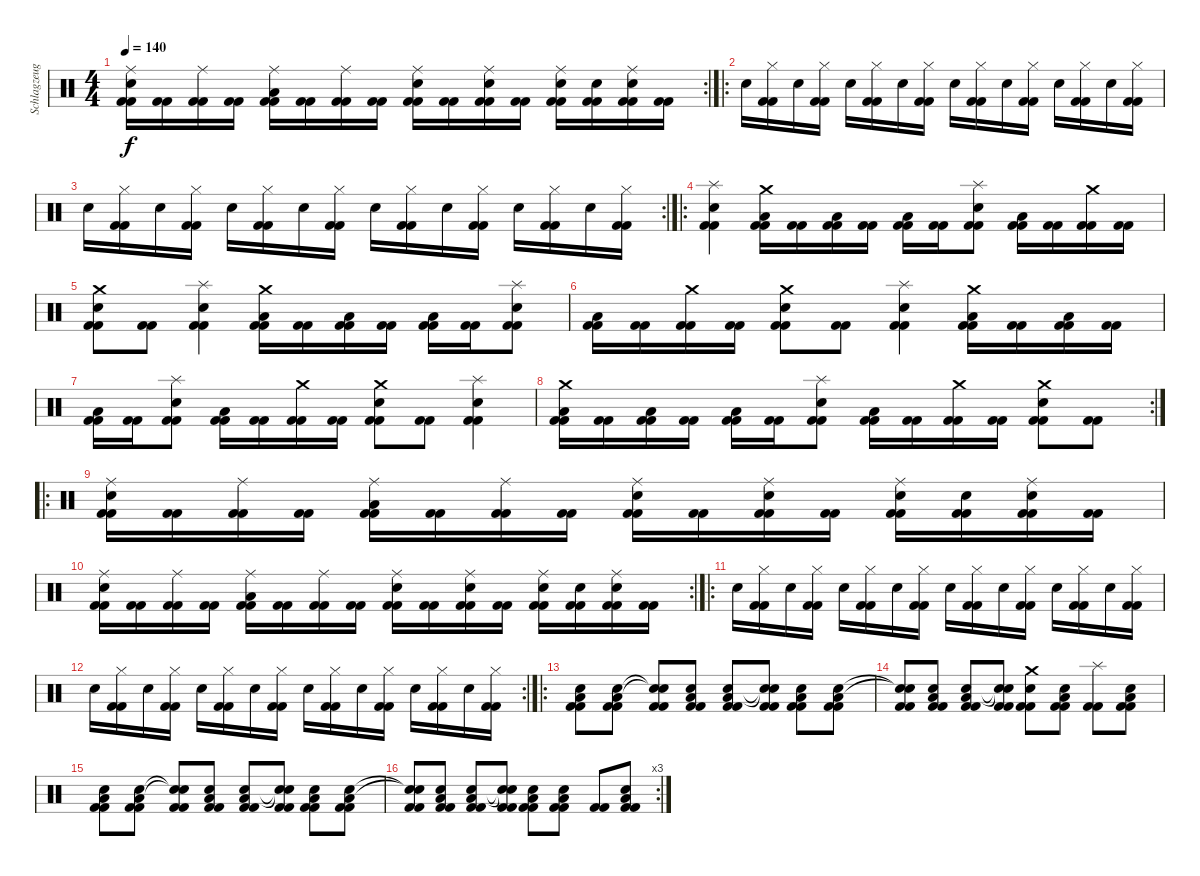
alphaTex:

\track ("Schlagzeug" "Schlagzeug") {instrument percussion}
\staff {score}
\articulation defaults
\rc 2
\ts (4 4)
\tempo 140
\clef neutral
\ks c
("Ride (middle)" "Snare (hit) 2" "Kick (hit) 2" "Kick (hit) 2").16{dy f} ("Kick (hit) 2" "Kick (hit) 2").16 ("Ride (middle)" "Kick (hit) 2" "Kick (hit) 2").16 ("Kick (hit) 2" "Kick (hit) 2").16 ("Ride (middle)" "Low Tom (hit)" "Kick (hit) 2" "Kick (hit) 2").16 ("Kick (hit) 2" "Kick (hit) 2").16 ("Ride (middle)" "Kick (hit) 2" "Kick (hit) 2").16 ("Kick (hit) 2" "Kick (hit) 2").16 ("Ride (middle)" "Snare (hit) 2" "Kick (hit) 2" "Kick (hit) 2").16 ("Kick (hit) 2" "Kick (hit) 2").16 ("Ride (middle)" "Snare (hit) 2" "Kick (hit) 2" "Kick (hit) 2").16 ("Kick (hit) 2" "Kick (hit) 2").16 ("Ride (middle)" "Snare (hit) 2" "Kick (hit) 2" "Kick (hit) 2").16 ("Snare (hit) 2" "Kick (hit) 2" "Kick (hit) 2").16 ("Ride (middle)" "Snare (hit) 2" "Kick (hit) 2" "Kick (hit) 2").16 ("Kick (hit) 2" "Kick (hit) 2").16 |
\ro "Snare (hit) 2".16
("Hi-Hat (closed)" "Kick (hit) 2" "Kick (hit) 2").16 "Snare (hit) 2".16 ("Hi-Hat (closed)" "Kick (hit) 2" "Kick (hit) 2").16 "Snare (hit) 2".16 ("Hi-Hat (closed)" "Kick (hit) 2" "Kick (hit) 2").16 "Snare (hit) 2".16 ("Hi-Hat (closed)" "Kick (hit) 2" "Kick (hit) 2").16 "Snare (hit) 2".16 ("Hi-Hat (closed)" "Kick (hit) 2" "Kick (hit) 2").16 "Snare (hit) 2".16 ("Hi-Hat (closed)" "Kick (hit) 2" "Kick (hit) 2").16 "Snare (hit) 2".16 ("Hi-Hat (closed)" "Kick (hit) 2" "Kick (hit) 2").16 "Snare (hit) 2".16 ("Hi-Hat (closed)" "Kick (hit) 2" "Kick (hit) 2").16 |
\rc 2 "Snare (hit) 2".16
("Hi-Hat (closed)" "Kick (hit) 2" "Kick (hit) 2").16 "Snare (hit) 2".16 ("Hi-Hat (closed)" "Kick (hit) 2" "Kick (hit) 2").16 "Snare (hit) 2".16 ("Hi-Hat (closed)" "Kick (hit) 2" "Kick (hit) 2").16 "Snare (hit) 2".16 ("Hi-Hat (closed)" "Kick (hit) 2" "Kick (hit) 2").16 "Snare (hit) 2".16 ("Hi-Hat (closed)" "Kick (hit) 2" "Kick (hit) 2").16 "Snare (hit) 2".16 ("Hi-Hat (closed)" "Kick (hit) 2" "Kick (hit) 2").16 "Snare (hit) 2".16 ("Hi-Hat (closed)" "Kick (hit) 2" "Kick (hit) 2").16 "Snare (hit) 2".16 ("Hi-Hat (closed)" "Kick (hit) 2" "Kick (hit) 2").16 |
\ro
("Splash (hit)" "Snare (hit) 2" "Kick (hit) 2" "Kick (hit) 2").4 ("Crash medium (hit)" "Low Tom (hit)" "Kick (hit) 2" "Kick (hit) 2").16 ("Kick (hit) 2" "Kick (hit) 2").16 ("Low Tom (hit)" "Kick (hit) 2" "Kick (hit) 2").16 ("Kick (hit) 2" "Kick (hit) 2").16 ("Low Tom (hit)" "Kick (hit) 2" "Kick (hit) 2").16 ("Kick (hit) 2" "Kick (hit) 2").16 ("Splash (hit)" "Snare (hit) 2" "Kick (hit) 2" "Kick (hit) 2").8 ("Low Tom (hit)" "Kick (hit) 2" "Kick (hit) 2").16 ("Kick (hit) 2" "Kick (hit) 2").16 ("Crash medium (hit)" "Kick (hit) 2" "Kick (hit) 2").16 ("Kick (hit) 2" "Kick (hit) 2").16 |
("Crash medium (hit)" "Snare (hit) 2" "Kick (hit) 2" "Kick (hit) 2").8 ("Kick (hit) 2" "Kick (hit) 2").8 ("Splash (hit)" "Snare (hit) 2" "Kick (hit) 2" "Kick (hit) 2").4 ("Crash medium (hit)" "Low Tom (hit)" "Kick (hit) 2" "Kick (hit) 2").16 ("Kick (hit) 2" "Kick (hit) 2").16 ("Low Tom (hit)" "Kick (hit) 2" "Kick (hit) 2").16 ("Kick (hit) 2" "Kick (hit) 2").16 ("Low Tom (hit)" "Kick (hit) 2" "Kick (hit) 2").16 ("Kick (hit) 2" "Kick (hit) 2").16 ("Splash (hit)" "Snare (hit) 2" "Kick (hit) 2" "Kick (hit) 2").8 |
("Low Tom (hit)" "Kick (hit) 2" "Kick (hit) 2").16 ("Kick (hit) 2" "Kick (hit) 2").16 ("Crash medium (hit)" "Kick (hit) 2" "Kick (hit) 2").16 ("Kick (hit) 2" "Kick (hit) 2").16 ("Crash medium (hit)" "Snare (hit) 2" "Kick (hit) 2" "Kick (hit) 2").8 ("Kick (hit) 2" "Kick (hit) 2").8 ("Splash (hit)" "Snare (hit) 2" "Kick (hit) 2" "Kick (hit) 2").4 ("Crash medium (hit)" "Low Tom (hit)" "Kick (hit) 2" "Kick (hit) 2").16 ("Kick (hit) 2" "Kick (hit) 2").16 ("Low Tom (hit)" "Kick (hit) 2" "Kick (hit) 2").16 ("Kick (hit) 2" "Kick (hit) 2").16 |
("Low Tom (hit)" "Kick (hit) 2" "Kick (hit) 2").16 ("Kick (hit) 2" "Kick (hit) 2").16 ("Splash (hit)" "Snare (hit) 2" "Kick (hit) 2" "Kick (hit) 2").8 ("Low Tom (hit)" "Kick (hit) 2" "Kick (hit) 2").16 ("Kick (hit) 2" "Kick (hit) 2").16 ("Crash medium (hit)" "Kick (hit) 2" "Kick (hit) 2").16 ("Kick (hit) 2" "Kick (hit) 2").16 ("Crash medium (hit)" "Snare (hit) 2" "Kick (hit) 2" "Kick (hit) 2").8 ("Kick (hit) 2" "Kick (hit) 2").8 ("Splash (hit)" "Snare (hit) 2" "Kick (hit) 2" "Kick (hit) 2").4 |
\rc 2
("Crash medium (hit)" "Low Tom (hit)" "Kick (hit) 2" "Kick (hit) 2").16 ("Kick (hit) 2" "Kick (hit) 2").16 ("Low Tom (hit)" "Kick (hit) 2" "Kick (hit) 2").16 ("Kick (hit) 2" "Kick (hit) 2").16 ("Low Tom (hit)" "Kick (hit) 2" "Kick (hit) 2").16 ("Kick (hit) 2" "Kick (hit) 2").16 ("Splash (hit)" "Snare (hit) 2" "Kick (hit) 2" "Kick (hit) 2").8 ("Low Tom (hit)" "Kick (hit) 2" "Kick (hit) 2").16 ("Kick (hit) 2" "Kick (hit) 2").16 ("Crash medium (hit)" "Kick (hit) 2" "Kick (hit) 2").16 ("Kick (hit) 2" "Kick (hit) 2").16 ("Crash medium (hit)" "Snare (hit) 2" "Kick (hit) 2" "Kick (hit) 2").8 ("Kick (hit) 2" "Kick (hit) 2").8 |
\ro
("Ride (middle)" "Snare (hit) 2" "Kick (hit) 2" "Kick (hit) 2").16 ("Kick (hit) 2" "Kick (hit) 2").16 ("Ride (middle)" "Kick (hit) 2" "Kick (hit) 2").16 ("Kick (hit) 2" "Kick (hit) 2").16 ("Ride (middle)" "Low Tom (hit)" "Kick (hit) 2" "Kick (hit) 2").16 ("Kick (hit) 2" "Kick (hit) 2").16 ("Ride (middle)" "Kick (hit) 2" "Kick (hit) 2").16 ("Kick (hit) 2" "Kick (hit) 2").16 ("Ride (middle)" "Snare (hit) 2" "Kick (hit) 2" "Kick (hit) 2").16 ("Kick (hit) 2" "Kick (hit) 2").16 ("Ride (middle)" "Snare (hit) 2" "Kick (hit) 2" "Kick (hit) 2").16 ("Kick (hit) 2" "Kick (hit) 2").16 ("Ride (middle)" "Snare (hit) 2" "Kick (hit) 2" "Kick (hit) 2").16 ("Snare (hit) 2" "Kick (hit) 2" "Kick (hit) 2").16 ("Ride (middle)" "Snare (hit) 2" "Kick (hit) 2" "Kick (hit) 2").16 ("Kick (hit) 2" "Kick (hit) 2").16 |
\rc 2
("Ride (middle)" "Snare (hit) 2" "Kick (hit) 2" "Kick (hit) 2").16 ("Kick (hit) 2" "Kick (hit) 2").16 ("Ride (middle)" "Kick (hit) 2" "Kick (hit) 2").16 ("Kick (hit) 2" "Kick (hit) 2").16 ("Ride (middle)" "Low Tom (hit)" "Kick (hit) 2" "Kick (hit) 2").16 ("Kick (hit) 2" "Kick (hit) 2").16 ("Ride (middle)" "Kick (hit) 2" "Kick (hit) 2").16 ("Kick (hit) 2" "Kick (hit) 2").16 ("Ride (middle)" "Snare (hit) 2" "Kick (hit) 2" "Kick (hit) 2").16 ("Kick (hit) 2" "Kick (hit) 2").16 ("Ride (middle)" "Snare (hit) 2" "Kick (hit) 2" "Kick (hit) 2").16 ("Kick (hit) 2" "Kick (hit) 2").16 ("Ride (middle)" "Snare (hit) 2" "Kick (hit) 2" "Kick (hit) 2").16 ("Snare (hit) 2" "Kick (hit) 2" "Kick (hit) 2").16 ("Ride (middle)" "Snare (hit) 2" "Kick (hit) 2" "Kick (hit) 2").16 ("Kick (hit) 2" "Kick (hit) 2").16 |
\ro "Snare (hit) 2".16
("Hi-Hat (closed)" "Kick (hit) 2" "Kick (hit) 2").16 "Snare (hit) 2".16 ("Hi-Hat (closed)" "Kick (hit) 2" "Kick (hit) 2").16 "Snare (hit) 2".16 ("Hi-Hat (closed)" "Kick (hit) 2" "Kick (hit) 2").16 "Snare (hit) 2".16 ("Hi-Hat (closed)" "Kick (hit) 2" "Kick (hit) 2").16 "Snare (hit) 2".16 ("Hi-Hat (closed)" "Kick (hit) 2" "Kick (hit) 2").16 "Snare (hit) 2".16 ("Hi-Hat (closed)" "Kick (hit) 2" "Kick (hit) 2").16 "Snare (hit) 2".16 ("Hi-Hat (closed)" "Kick (hit) 2" "Kick (hit) 2").16 "Snare (hit) 2".16 ("Hi-Hat (closed)" "Kick (hit) 2" "Kick (hit) 2").16 |
\rc 2 "Snare (hit) 2".16
("Hi-Hat (closed)" "Kick (hit) 2" "Kick (hit) 2").16 "Snare (hit) 2".16 ("Hi-Hat (closed)" "Kick (hit) 2" "Kick (hit) 2").16 "Snare (hit) 2".16 ("Hi-Hat (closed)" "Kick (hit) 2" "Kick (hit) 2").16 "Snare (hit) 2".16 ("Hi-Hat (closed)" "Kick (hit) 2" "Kick (hit) 2").16 "Snare (hit) 2".16 ("Hi-Hat (closed)" "Kick (hit) 2" "Kick (hit) 2").16 "Snare (hit) 2".16 ("Hi-Hat (closed)" "Kick (hit) 2" "Kick (hit) 2").16 "Snare (hit) 2".16 ("Hi-Hat (closed)" "Kick (hit) 2" "Kick (hit) 2").16 "Snare (hit) 2".16 ("Hi-Hat (closed)" "Kick (hit) 2" "Kick (hit) 2").16 |
\ro
("Low Tom (hit)" "Snare (hit) 2" "Kick (hit) 2" "Kick (hit) 2").8 ("Low Tom (hit)" "Snare (hit) 2" "Kick (hit) 2" "Kick (hit) 2").8 ("Snare (hit)"{t} "Snare (hit)"{t} "Kick (hit) 2" "Kick (hit) 2").8 ("Low Tom (hit)" "Snare (hit) 2" "Kick (hit) 2" "Kick (hit) 2").8 ("Low Tom (hit)" "Snare (hit) 2" "Kick (hit) 2" "Kick (hit) 2").8 ("Snare (hit)"{t} "Snare (hit)"{t} "Kick (hit) 2" "Kick (hit) 2").8 ("Low Tom (hit)" "Snare (hit) 2" "Kick (hit) 2" "Kick (hit) 2").8 ("Low Tom (hit)" "Snare (hit) 2" "Kick (hit) 2" "Kick (hit) 2").8 |
("Snare (hit)"{t} "Snare (hit)"{t} "Kick (hit) 2" "Kick (hit) 2").8 ("Low Tom (hit)" "Snare (hit) 2" "Kick (hit) 2" "Kick (hit) 2").8 ("Low Tom (hit)" "Snare (hit) 2" "Kick (hit) 2" "Kick (hit) 2").8 ("Snare (hit)"{t} "Snare (hit)"{t} "Kick (hit) 2" "Kick (hit) 2").8 ("Crash medium (hit)" "Snare (hit) 2" "Kick (hit) 2" "Kick (hit) 2").8 ("Low Tom (hit)" "Snare (hit) 2" "Kick (hit) 2" "Kick (hit) 2").8 ("Splash (hit)" "Kick (hit) 2" "Kick (hit) 2").8 ("Low Tom (hit)" "Snare (hit) 2" "Kick (hit) 2" "Kick (hit) 2").8 |
("Low Tom (hit)" "Snare (hit) 2" "Kick (hit) 2" "Kick (hit) 2").8 ("Low Tom (hit)" "Snare (hit) 2" "Kick (hit) 2" "Kick (hit) 2").8 ("Snare (hit)"{t} "Snare (hit)"{t} "Kick (hit) 2" "Kick (hit) 2").8 ("Low Tom (hit)" "Snare (hit) 2" "Kick (hit) 2" "Kick (hit) 2").8 ("Low Tom (hit)" "Snare (hit) 2" "Kick (hit) 2" "Kick (hit) 2").8 ("Snare (hit)"{t} "Snare (hit)"{t} "Kick (hit) 2" "Kick (hit) 2").8 ("Low Tom (hit)" "Snare (hit) 2" "Kick (hit) 2" "Kick (hit) 2").8 ("Low Tom (hit)" "Snare (hit) 2" "Kick (hit) 2" "Kick (hit) 2").8 |
\rc 3
("Snare (hit)"{t} "Snare (hit)"{t} "Kick (hit) 2" "Kick (hit) 2").8 ("Low Tom (hit)" "Snare (hit) 2" "Kick (hit) 2" "Kick (hit) 2").8 ("Low Tom (hit)" "Snare (hit) 2" "Kick (hit) 2" "Kick (hit) 2").8 ("Snare (hit)"{t} "Snare (hit)"{t} "Kick (hit) 2" "Kick (hit) 2").8 ("Low Tom (hit)" "Snare (hit) 2" "Kick (hit) 2" "Kick (hit) 2").8 ("Low Tom (hit)" "Snare (hit) 2" "Kick (hit) 2" "Kick (hit) 2").8 ("Kick (hit) 2" "Kick (hit) 2").8 ("Low Tom (hit)" "Snare (hit) 2" "Kick (hit) 2" "Kick (hit) 2").8
